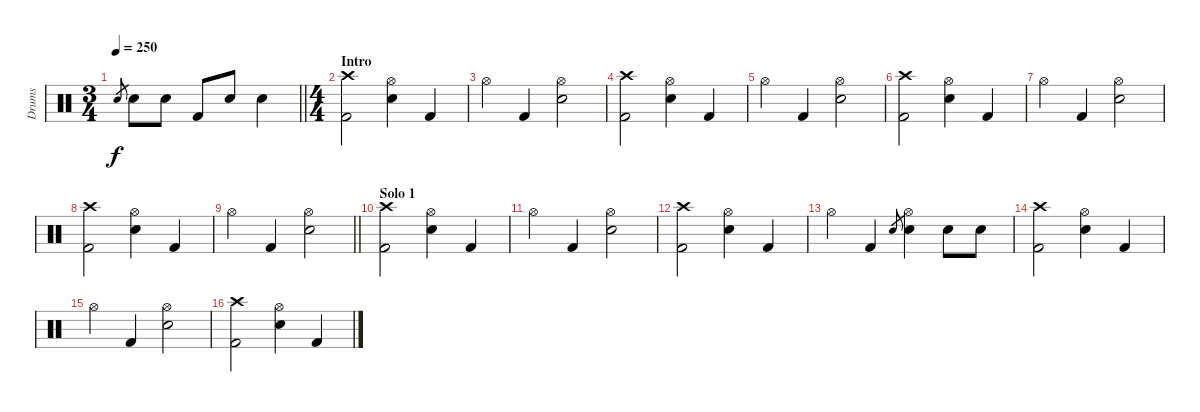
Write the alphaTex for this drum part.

\track ("Drums" "Drums") {instrument percussion}
\staff {score}
\articulation defaults
\ts (3 4)
\section ("" "")
\tempo 250
\clef neutral
\barLineRight lightlight
\ks c "Electric Snare (hit)".8{gr dy f} "Electric Snare (hit)".8 "Electric Snare (hit)".8 "Kick (hit) 2".8 "Electric Snare (hit)".8 "Electric Snare (hit)".4
|
\ts (4 4)
\section ("" "Intro")
("Crash high (hit)" "Kick (hit) 2").2 ("Hi-Hat (open)" "Electric Snare (hit)").4 "Kick (hit) 2".4 |
"Hi-Hat (open)".4 "Kick (hit) 2".4 ("Hi-Hat (open)" "Electric Snare (hit)").2 |
("Crash high (hit)" "Kick (hit) 2").2 ("Hi-Hat (open)" "Electric Snare (hit)").4 "Kick (hit) 2".4 |
"Hi-Hat (open)".4 "Kick (hit) 2".4 ("Hi-Hat (open)" "Electric Snare (hit)").2 |
("Crash high (hit)" "Kick (hit) 2").2 ("Hi-Hat (open)" "Electric Snare (hit)").4 "Kick (hit) 2".4 |
"Hi-Hat (open)".4 "Kick (hit) 2".4 ("Hi-Hat (open)" "Electric Snare (hit)").2 |
("Crash high (hit)" "Kick (hit) 2").2 ("Hi-Hat (open)" "Electric Snare (hit)").4 "Kick (hit) 2".4 |
\barLineRight lightlight "Hi-Hat (open)".4 "Kick (hit) 2".4
("Hi-Hat (open)" "Electric Snare (hit)").2 |
\section ("" "Solo 1")
("Crash high (hit)" "Kick (hit) 2").2 ("Hi-Hat (open)" "Electric Snare (hit)").4 "Kick (hit) 2".4 |
"Hi-Hat (open)".4 "Kick (hit) 2".4 ("Hi-Hat (open)" "Electric Snare (hit)").2 |
("Crash high (hit)" "Kick (hit) 2").2 ("Hi-Hat (open)" "Electric Snare (hit)").4 "Kick (hit) 2".4 |
"Hi-Hat (open)".4 "Kick (hit) 2".4 "Electric Snare (hit)".8{gr} ("Hi-Hat (open)" "Electric Snare (hit)").4 "Electric Snare (hit)".8 "Electric Snare (hit)".8 |
("Crash high (hit)" "Kick (hit) 2").2 ("Hi-Hat (open)" "Electric Snare (hit)").4 "Kick (hit) 2".4 |
"Hi-Hat (open)".4 "Kick (hit) 2".4 ("Hi-Hat (open)" "Electric Snare (hit)").2 |
("Crash high (hit)" "Kick (hit) 2").2 ("Hi-Hat (open)" "Electric Snare (hit)").4 "Kick (hit) 2".4
